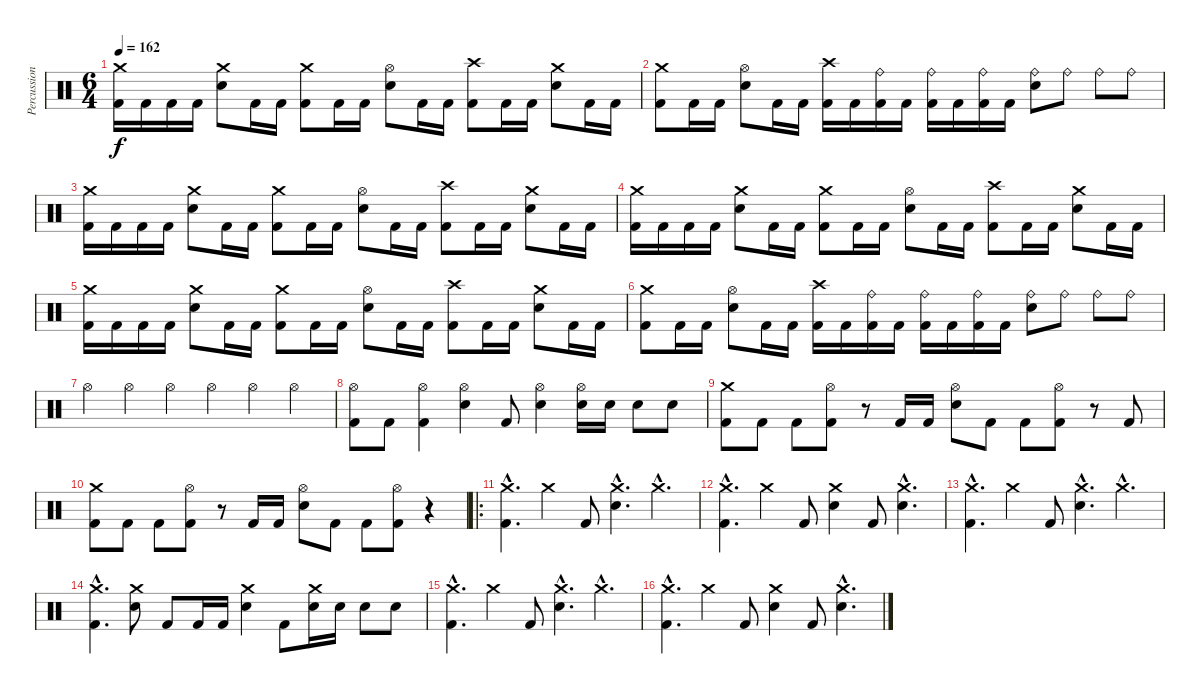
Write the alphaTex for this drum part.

\track ("Percussion" "Percussion") {instrument percussion}
\staff {score}
\articulation defaults
\ts (6 4)
\tempo 162
\clef neutral
\ks c
("Crash medium (hit)" "Kick (hit) 2").16{dy f} "Kick (hit) 2".16 "Kick (hit) 2".16 "Kick (hit) 2".16 ("Crash medium (hit)" "Electric Snare (hit)").8 "Kick (hit) 2".16 "Kick (hit) 2".16 ("Crash medium (hit)" "Kick (hit) 2").8 "Kick (hit) 2".16 "Kick (hit) 2".16 ("Hi-Hat (open)" "Electric Snare (hit)").8 "Kick (hit) 2".16 "Kick (hit) 2".16 ("Crash high (hit)" "Kick (hit) 2").8 "Kick (hit) 2".16 "Kick (hit) 2".16 ("Crash medium (hit)" "Electric Snare (hit)").8 "Kick (hit) 2".16 "Kick (hit) 2".16 |
("Crash medium (hit)" "Kick (hit) 2").8 "Kick (hit) 2".16 "Kick (hit) 2".16 ("Hi-Hat (open)" "Electric Snare (hit)").8 "Kick (hit) 2".16 "Kick (hit) 2".16 ("Crash high (hit)" "Kick (hit) 2").16 "Kick (hit) 2".16 ("Ride (bell)" "Kick (hit) 2").16 "Kick (hit) 2".16 ("Ride (bell)" "Kick (hit) 2").16 "Kick (hit) 2".16 ("Ride (bell)" "Kick (hit) 2").16 "Kick (hit) 2".16 ("Ride (bell)" "Electric Snare (hit)").8 "Ride (bell)".8 "Ride (bell)".8 "Ride (bell)".8 |
("Crash medium (hit)" "Kick (hit) 2").16 "Kick (hit) 2".16 "Kick (hit) 2".16 "Kick (hit) 2".16 ("Crash medium (hit)" "Electric Snare (hit)").8 "Kick (hit) 2".16 "Kick (hit) 2".16 ("Crash medium (hit)" "Kick (hit) 2").8 "Kick (hit) 2".16 "Kick (hit) 2".16 ("Hi-Hat (open)" "Electric Snare (hit)").8 "Kick (hit) 2".16 "Kick (hit) 2".16 ("Crash high (hit)" "Kick (hit) 2").8 "Kick (hit) 2".16 "Kick (hit) 2".16 ("Crash medium (hit)" "Electric Snare (hit)").8 "Kick (hit) 2".16 "Kick (hit) 2".16 |
("Crash medium (hit)" "Kick (hit) 2").16 "Kick (hit) 2".16 "Kick (hit) 2".16 "Kick (hit) 2".16 ("Crash medium (hit)" "Electric Snare (hit)").8 "Kick (hit) 2".16 "Kick (hit) 2".16 ("Crash medium (hit)" "Kick (hit) 2").8 "Kick (hit) 2".16 "Kick (hit) 2".16 ("Hi-Hat (open)" "Electric Snare (hit)").8 "Kick (hit) 2".16 "Kick (hit) 2".16 ("Crash high (hit)" "Kick (hit) 2").8 "Kick (hit) 2".16 "Kick (hit) 2".16 ("Crash medium (hit)" "Electric Snare (hit)").8 "Kick (hit) 2".16 "Kick (hit) 2".16 |
("Crash medium (hit)" "Kick (hit) 2").16 "Kick (hit) 2".16 "Kick (hit) 2".16 "Kick (hit) 2".16 ("Crash medium (hit)" "Electric Snare (hit)").8 "Kick (hit) 2".16 "Kick (hit) 2".16 ("Crash medium (hit)" "Kick (hit) 2").8 "Kick (hit) 2".16 "Kick (hit) 2".16 ("Hi-Hat (open)" "Electric Snare (hit)").8 "Kick (hit) 2".16 "Kick (hit) 2".16 ("Crash high (hit)" "Kick (hit) 2").8 "Kick (hit) 2".16 "Kick (hit) 2".16 ("Crash medium (hit)" "Electric Snare (hit)").8 "Kick (hit) 2".16 "Kick (hit) 2".16 |
("Crash medium (hit)" "Kick (hit) 2").8 "Kick (hit) 2".16 "Kick (hit) 2".16 ("Hi-Hat (open)" "Electric Snare (hit)").8 "Kick (hit) 2".16 "Kick (hit) 2".16 ("Crash high (hit)" "Kick (hit) 2").16 "Kick (hit) 2".16 ("Ride (bell)" "Kick (hit) 2").16 "Kick (hit) 2".16 ("Ride (bell)" "Kick (hit) 2").16 "Kick (hit) 2".16 ("Ride (bell)" "Kick (hit) 2").16 "Kick (hit) 2".16 ("Ride (bell)" "Electric Snare (hit)").8 "Ride (bell)".8 "Ride (bell)".8 "Ride (bell)".8 |
"Hi-Hat (open)".4 "Hi-Hat (open)".4 "Hi-Hat (open)".4 "Hi-Hat (open)".4 "Hi-Hat (open)".4 "Hi-Hat (open)".4 |
("Hi-Hat (open)" "Kick (hit) 2").8 "Kick (hit) 2".8 ("Hi-Hat (open)" "Kick (hit) 2").4 ("Hi-Hat (open)" "Electric Snare (hit)").4 "Kick (hit) 2".8 ("Hi-Hat (open)" "Electric Snare (hit)").4 ("Hi-Hat (open)" "Electric Snare (hit)").16 "Electric Snare (hit)".16 "Electric Snare (hit)".8 "Electric Snare (hit)".8 |
("Crash medium (hit)" "Kick (hit) 2").8 "Kick (hit) 2".8 "Kick (hit) 2".8 ("Hi-Hat (open)" "Kick (hit) 2").8 r.8 "Kick (hit) 2".16 "Kick (hit) 2".16 ("Hi-Hat (open)" "Electric Snare (hit)").8 "Kick (hit) 2".8 "Kick (hit) 2".8 ("Hi-Hat (open)" "Kick (hit) 2").8 r.8 "Kick (hit) 2".8 |
("Crash medium (hit)" "Kick (hit) 2").8 "Kick (hit) 2".8 "Kick (hit) 2".8 ("Hi-Hat (open)" "Kick (hit) 2").8 r.8 "Kick (hit) 2".16 "Kick (hit) 2".16 ("Hi-Hat (open)" "Electric Snare (hit)").8 "Kick (hit) 2".8 "Kick (hit) 2".8 ("Hi-Hat (open)" "Kick (hit) 2").8 r.4 |
\ro
("Crash medium (hit)"{hac} "Kick (hit) 2"{hac}).4{d} "Crash medium (hit)".4 "Kick (hit) 2".8 ("Crash medium (hit)"{hac} "Electric Snare (hit)"{hac}).4{d} "Crash medium (hit)"{hac}.4{d} |
("Crash medium (hit)"{hac} "Kick (hit) 2"{hac}).4{d} "Crash medium (hit)".4 "Kick (hit) 2".8 ("Crash medium (hit)" "Electric Snare (hit)").4 "Kick (hit) 2".8 ("Crash medium (hit)"{hac} "Electric Snare (hit)"{hac}).4{d} |
("Crash medium (hit)"{hac} "Kick (hit) 2"{hac}).4{d} "Crash medium (hit)".4 "Kick (hit) 2".8 ("Crash medium (hit)"{hac} "Electric Snare (hit)"{hac}).4{d} "Crash medium (hit)"{hac}.4{d} |
("Crash medium (hit)"{hac} "Kick (hit) 2"{hac}).4{d} ("Crash medium (hit)" "Electric Snare (hit)").8 "Kick (hit) 2".8 "Kick (hit) 2".16 "Kick (hit) 2".16 ("Crash medium (hit)" "Electric Snare (hit)").4 "Kick (hit) 2".8 ("Crash medium (hit)" "Electric Snare (hit)").16 "Electric Snare (hit)".16 "Electric Snare (hit)".8 "Electric Snare (hit)".8 |
("Crash medium (hit)"{hac} "Kick (hit) 2"{hac}).4{d} "Crash medium (hit)".4 "Kick (hit) 2".8 ("Crash medium (hit)"{hac} "Electric Snare (hit)"{hac}).4{d} "Crash medium (hit)"{hac}.4{d} |
("Crash medium (hit)"{hac} "Kick (hit) 2"{hac}).4{d} "Crash medium (hit)".4 "Kick (hit) 2".8 ("Crash medium (hit)" "Electric Snare (hit)").4 "Kick (hit) 2".8 ("Crash medium (hit)"{hac} "Electric Snare (hit)"{hac}).4{d}
